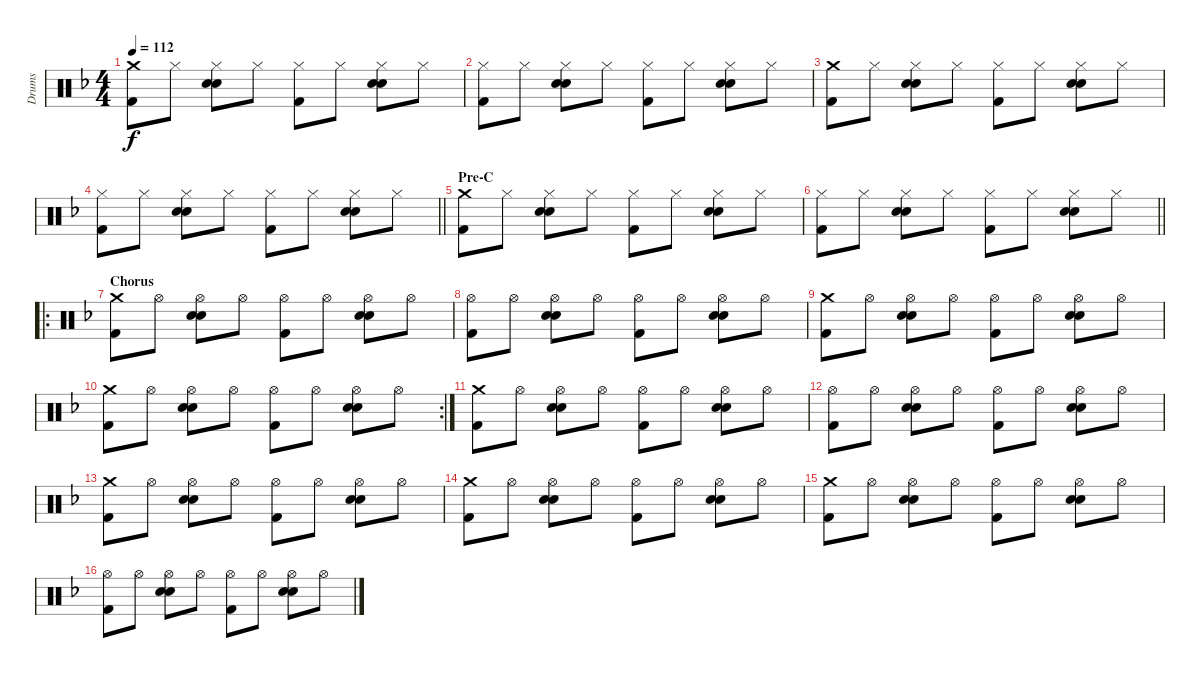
\track ("Drums" "Drums") {instrument percussion}
\staff {score}
\articulation defaults
\ts (4 4)
\tempo 112
\clef neutral
\ks dminor
("Kick (hit) 2" "Crash medium (hit)").8{dy f} "Hi-Hat (closed)".8 ("Electric Snare (hit)" "Snare (hit) 2" "Hi-Hat (closed)").8 "Hi-Hat (closed)".8 ("Kick (hit) 2" "Hi-Hat (closed)").8 "Hi-Hat (closed)".8 ("Electric Snare (hit)" "Snare (hit) 2" "Hi-Hat (closed)").8 "Hi-Hat (closed)".8 |
("Kick (hit) 2" "Hi-Hat (closed)").8 "Hi-Hat (closed)".8 ("Electric Snare (hit)" "Snare (hit) 2" "Hi-Hat (closed)").8 "Hi-Hat (closed)".8 ("Kick (hit) 2" "Hi-Hat (closed)").8 "Hi-Hat (closed)".8 ("Electric Snare (hit)" "Snare (hit) 2" "Hi-Hat (closed)").8 "Hi-Hat (closed)".8 |
("Kick (hit) 2" "Crash medium (hit)").8 "Hi-Hat (closed)".8 ("Electric Snare (hit)" "Snare (hit) 2" "Hi-Hat (closed)").8 "Hi-Hat (closed)".8 ("Kick (hit) 2" "Hi-Hat (closed)").8 "Hi-Hat (closed)".8 ("Electric Snare (hit)" "Snare (hit) 2" "Hi-Hat (closed)").8 "Hi-Hat (closed)".8 |
\barLineRight lightlight
("Kick (hit) 2" "Hi-Hat (closed)").8 "Hi-Hat (closed)".8 ("Electric Snare (hit)" "Snare (hit) 2" "Hi-Hat (closed)").8 "Hi-Hat (closed)".8 ("Kick (hit) 2" "Hi-Hat (closed)").8 "Hi-Hat (closed)".8 ("Electric Snare (hit)" "Snare (hit) 2" "Hi-Hat (closed)").8 "Hi-Hat (closed)".8 |
\section ("" "Pre-C")
("Kick (hit) 2" "Crash medium (hit)").8 "Hi-Hat (closed)".8 ("Electric Snare (hit)" "Snare (hit) 2" "Hi-Hat (closed)").8 "Hi-Hat (closed)".8 ("Kick (hit) 2" "Hi-Hat (closed)").8 "Hi-Hat (closed)".8 ("Electric Snare (hit)" "Snare (hit) 2" "Hi-Hat (closed)").8 "Hi-Hat (closed)".8 |
\barLineRight lightlight
("Kick (hit) 2" "Hi-Hat (closed)").8 "Hi-Hat (closed)".8 ("Electric Snare (hit)" "Snare (hit) 2" "Hi-Hat (closed)").8 "Hi-Hat (closed)".8 ("Kick (hit) 2" "Hi-Hat (closed)").8 "Hi-Hat (closed)".8 ("Electric Snare (hit)" "Snare (hit) 2" "Hi-Hat (closed)").8 "Hi-Hat (closed)".8 |
\ro
\section ("" "Chorus")
("Kick (hit) 2" "Crash medium (hit)").8 "Hi-Hat (open)".8 ("Electric Snare (hit)" "Snare (hit) 2" "Hi-Hat (open)").8 "Hi-Hat (open)".8 ("Kick (hit) 2" "Hi-Hat (open)").8 "Hi-Hat (open)".8 ("Electric Snare (hit)" "Snare (hit) 2" "Hi-Hat (open)").8 "Hi-Hat (open)".8 |
("Kick (hit) 2" "Hi-Hat (open)").8 "Hi-Hat (open)".8 ("Electric Snare (hit)" "Snare (hit) 2" "Hi-Hat (open)").8 "Hi-Hat (open)".8 ("Kick (hit) 2" "Hi-Hat (open)").8 "Hi-Hat (open)".8 ("Electric Snare (hit)" "Snare (hit) 2" "Hi-Hat (open)").8 "Hi-Hat (open)".8 |
("Kick (hit) 2" "Crash medium (hit)").8 "Hi-Hat (open)".8 ("Electric Snare (hit)" "Snare (hit) 2" "Hi-Hat (open)").8 "Hi-Hat (open)".8 ("Kick (hit) 2" "Hi-Hat (open)").8 "Hi-Hat (open)".8 ("Electric Snare (hit)" "Snare (hit) 2" "Hi-Hat (open)").8 "Hi-Hat (open)".8 |
\rc 2
("Kick (hit) 2" "Crash medium (hit)").8 "Hi-Hat (open)".8 ("Electric Snare (hit)" "Snare (hit) 2" "Hi-Hat (open)").8 "Hi-Hat (open)".8 ("Kick (hit) 2" "Hi-Hat (open)").8 "Hi-Hat (open)".8 ("Electric Snare (hit)" "Snare (hit) 2" "Hi-Hat (open)").8 "Hi-Hat (open)".8 |
("Kick (hit) 2" "Crash medium (hit)").8 "Hi-Hat (open)".8 ("Electric Snare (hit)" "Snare (hit) 2" "Hi-Hat (open)").8 "Hi-Hat (open)".8 ("Kick (hit) 2" "Hi-Hat (open)").8 "Hi-Hat (open)".8 ("Electric Snare (hit)" "Snare (hit) 2" "Hi-Hat (open)").8 "Hi-Hat (open)".8 |
("Kick (hit) 2" "Hi-Hat (open)").8 "Hi-Hat (open)".8 ("Electric Snare (hit)" "Snare (hit) 2" "Hi-Hat (open)").8 "Hi-Hat (open)".8 ("Kick (hit) 2" "Hi-Hat (open)").8 "Hi-Hat (open)".8 ("Electric Snare (hit)" "Snare (hit) 2" "Hi-Hat (open)").8 "Hi-Hat (open)".8 |
("Kick (hit) 2" "Crash medium (hit)").8 "Hi-Hat (open)".8 ("Electric Snare (hit)" "Snare (hit) 2" "Hi-Hat (open)").8 "Hi-Hat (open)".8 ("Kick (hit) 2" "Hi-Hat (open)").8 "Hi-Hat (open)".8 ("Electric Snare (hit)" "Snare (hit) 2" "Hi-Hat (open)").8 "Hi-Hat (open)".8 |
("Kick (hit) 2" "Crash medium (hit)").8 "Hi-Hat (open)".8 ("Electric Snare (hit)" "Snare (hit) 2" "Hi-Hat (open)").8 "Hi-Hat (open)".8 ("Kick (hit) 2" "Hi-Hat (open)").8 "Hi-Hat (open)".8 ("Electric Snare (hit)" "Snare (hit) 2" "Hi-Hat (open)").8 "Hi-Hat (open)".8 |
("Kick (hit) 2" "Crash medium (hit)").8 "Hi-Hat (open)".8 ("Electric Snare (hit)" "Snare (hit) 2" "Hi-Hat (open)").8 "Hi-Hat (open)".8 ("Kick (hit) 2" "Hi-Hat (open)").8 "Hi-Hat (open)".8 ("Electric Snare (hit)" "Snare (hit) 2" "Hi-Hat (open)").8 "Hi-Hat (open)".8 |
("Kick (hit) 2" "Hi-Hat (open)").8 "Hi-Hat (open)".8 ("Electric Snare (hit)" "Snare (hit) 2" "Hi-Hat (open)").8 "Hi-Hat (open)".8 ("Kick (hit) 2" "Hi-Hat (open)").8 "Hi-Hat (open)".8 ("Electric Snare (hit)" "Snare (hit) 2" "Hi-Hat (open)").8 "Hi-Hat (open)".8
